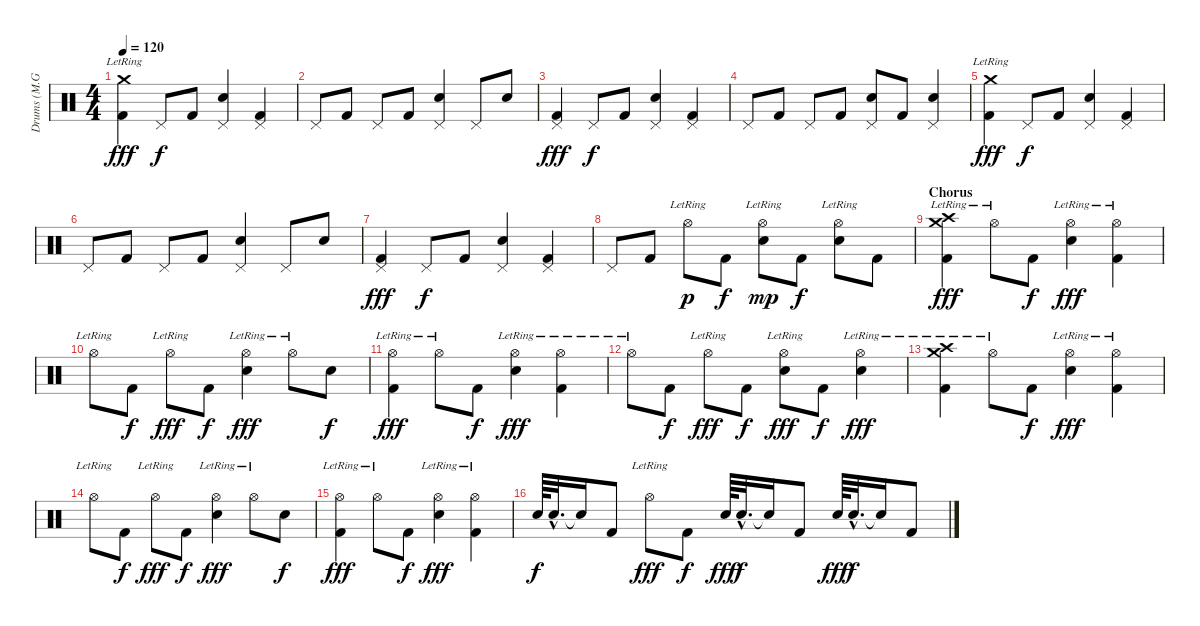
\track ("Drums (M.Grosskopf)" "Drums (M.G") {instrument percussion}
\staff {score}
\articulation defaults
\ts (4 4)
\tempo 120
\clef neutral
\ks c
("Crash medium (hit)"{lr} "Kick (hit) 2").4{dy fff} "Pedal Hi-Hat (hit)".8{dy f} "Kick (hit) 2".8 ("Pedal Hi-Hat (hit)" "Electric Snare (hit)").4 ("Pedal Hi-Hat (hit)" "Kick (hit) 2").4 |
"Pedal Hi-Hat (hit)".8 "Kick (hit) 2".8 "Pedal Hi-Hat (hit)".8 "Kick (hit) 2".8 ("Pedal Hi-Hat (hit)" "Electric Snare (hit)").4 "Pedal Hi-Hat (hit)".8 "Electric Snare (hit)".8 |
("Pedal Hi-Hat (hit)" "Kick (hit) 2").4{dy fff} "Pedal Hi-Hat (hit)".8{dy f} "Kick (hit) 2".8 ("Pedal Hi-Hat (hit)" "Electric Snare (hit)").4 ("Pedal Hi-Hat (hit)" "Kick (hit) 2").4 |
"Pedal Hi-Hat (hit)".8 "Kick (hit) 2".8 "Pedal Hi-Hat (hit)".8 "Kick (hit) 2".8 ("Pedal Hi-Hat (hit)" "Electric Snare (hit)").8 "Kick (hit) 2".8 ("Pedal Hi-Hat (hit)" "Electric Snare (hit)").4 |
("Crash medium (hit)"{lr} "Kick (hit) 2").4{dy fff} "Pedal Hi-Hat (hit)".8{dy f} "Kick (hit) 2".8 ("Pedal Hi-Hat (hit)" "Electric Snare (hit)").4 ("Pedal Hi-Hat (hit)" "Kick (hit) 2").4 |
"Pedal Hi-Hat (hit)".8 "Kick (hit) 2".8 "Pedal Hi-Hat (hit)".8 "Kick (hit) 2".8 ("Pedal Hi-Hat (hit)" "Electric Snare (hit)").4 "Pedal Hi-Hat (hit)".8 "Electric Snare (hit)".8 |
("Pedal Hi-Hat (hit)" "Kick (hit) 2").4{dy fff} "Pedal Hi-Hat (hit)".8{dy f} "Kick (hit) 2".8 ("Pedal Hi-Hat (hit)" "Electric Snare (hit)").4 ("Pedal Hi-Hat (hit)" "Kick (hit) 2").4 |
"Pedal Hi-Hat (hit)".8 "Kick (hit) 2".8 "Hi-Hat (open)"{lr}.8{dy p} "Kick (hit) 2".8{dy f} ("Hi-Hat (open)"{lr} "Electric Snare (hit)").8{dy mp} "Kick (hit) 2".8{dy f} ("Hi-Hat (open)"{lr} "Electric Snare (hit)").8 "Kick (hit) 2".8 |
\section ("" "Chorus")
("Crash high (hit)"{lr} "Crash medium (hit)"{lr} "Kick (hit) 2").4{dy fff} "Hi-Hat (open)"{lr}.8 "Kick (hit) 2".8{dy f} ("Hi-Hat (open)"{lr} "Electric Snare (hit)").4{dy fff} ("Hi-Hat (open)"{lr} "Kick (hit) 2").4 |
"Hi-Hat (open)"{lr}.8 "Kick (hit) 2".8{dy f} "Hi-Hat (open)"{lr}.8{dy fff} "Kick (hit) 2".8{dy f} ("Hi-Hat (open)"{lr} "Electric Snare (hit)").4{dy fff} "Hi-Hat (open)"{lr}.8 "Electric Snare (hit)".8{dy f} |
("Hi-Hat (open)"{lr} "Kick (hit) 2").4{dy fff} "Hi-Hat (open)"{lr}.8 "Kick (hit) 2".8{dy f} ("Hi-Hat (open)"{lr} "Electric Snare (hit)").4{dy fff} ("Hi-Hat (open)"{lr} "Kick (hit) 2").4 |
"Hi-Hat (open)"{lr}.8 "Kick (hit) 2".8{dy f} "Hi-Hat (open)"{lr}.8{dy fff} "Kick (hit) 2".8{dy f} ("Hi-Hat (open)"{lr} "Electric Snare (hit)").8{dy fff} "Kick (hit) 2".8{dy f} ("Hi-Hat (open)"{lr} "Electric Snare (hit)").4{dy fff} |
("Crash high (hit)"{lr} "Crash medium (hit)"{lr} "Kick (hit) 2").4 "Hi-Hat (open)"{lr}.8 "Kick (hit) 2".8{dy f} ("Hi-Hat (open)"{lr} "Electric Snare (hit)").4{dy fff} ("Hi-Hat (open)"{lr} "Kick (hit) 2").4 |
"Hi-Hat (open)"{lr}.8 "Kick (hit) 2".8{dy f} "Hi-Hat (open)"{lr}.8{dy fff} "Kick (hit) 2".8{dy f} ("Hi-Hat (open)"{lr} "Electric Snare (hit)").4{dy fff} "Hi-Hat (open)"{lr}.8 "Electric Snare (hit)".8{dy f} |
("Hi-Hat (open)"{lr} "Kick (hit) 2").4{dy fff} "Hi-Hat (open)"{lr}.8 "Kick (hit) 2".8{dy f} ("Hi-Hat (open)"{lr} "Electric Snare (hit)").4{dy fff} ("Hi-Hat (open)"{lr} "Kick (hit) 2").4 |
"Electric Snare (hit)".64{dy f} "Electric Snare (hit)"{hac}.32{d} "Snare (hit)"{t}.16 "Kick (hit) 2".8 "Hi-Hat (open)"{lr}.8{dy fff} "Kick (hit) 2".8{dy f} "Electric Snare (hit)".64{dy fff} "Electric Snare (hit)"{hac}.32{d dy f} "Snare (hit)"{t}.16 "Kick (hit) 2".8 "Electric Snare (hit)".64{dy fff} "Electric Snare (hit)"{hac}.32{d dy f} "Snare (hit)"{t}.16 "Kick (hit) 2".8
